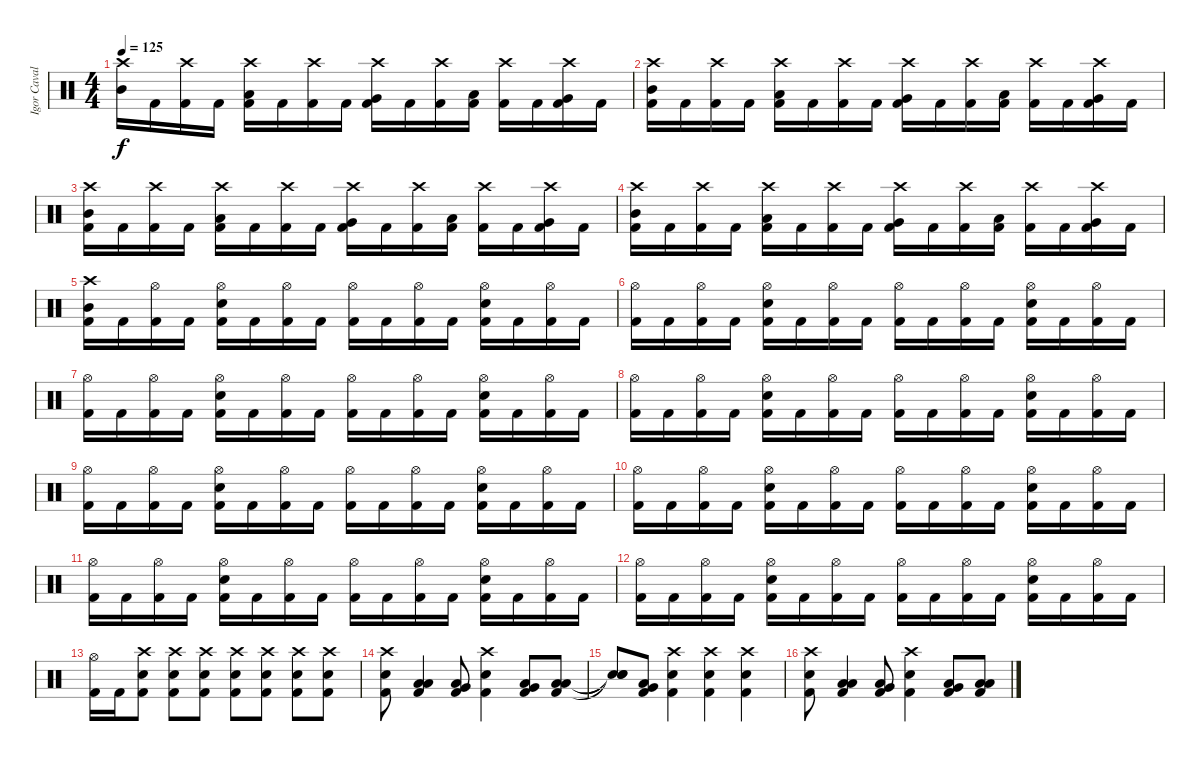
\track ("Igor Cavalera" "Igor Caval") {instrument percussion}
\staff {score}
\articulation defaults
\ts (4 4)
\tempo 125
\clef neutral
\ks c
("Crash high (hit)" "Mid Tom (hit)").16{dy f} "Kick (hit) 2".16 ("Crash high (hit)" "Kick (hit) 2").16 "Kick (hit) 2".16 ("Crash high (hit)" "Low Tom (hit)" "Kick (hit) 2").16 "Kick (hit) 2".16 ("Crash high (hit)" "Kick (hit) 2").16 "Kick (hit) 2".16 ("Crash high (hit)" "Very Low Tom (hit)" "Kick (hit) 2").16 "Kick (hit) 2".16 ("Crash high (hit)" "Kick (hit) 2").16 ("Low Floor Tom (hit)" "Kick (hit) 2").16 ("Crash high (hit)" "Kick (hit) 2").16 "Kick (hit) 2".16 ("Crash high (hit)" "Very Low Tom (hit)" "Kick (hit) 2").16 "Kick (hit) 2".16 |
("Crash high (hit)" "Mid Tom (hit)" "Kick (hit) 2").16 "Kick (hit) 2".16 ("Crash high (hit)" "Kick (hit) 2").16 "Kick (hit) 2".16 ("Crash high (hit)" "Low Tom (hit)" "Kick (hit) 2").16 "Kick (hit) 2".16 ("Crash high (hit)" "Kick (hit) 2").16 "Kick (hit) 2".16 ("Crash high (hit)" "Very Low Tom (hit)" "Kick (hit) 2").16 "Kick (hit) 2".16 ("Crash high (hit)" "Kick (hit) 2").16 ("Low Floor Tom (hit)" "Kick (hit) 2").16 ("Crash high (hit)" "Kick (hit) 2").16 "Kick (hit) 2".16 ("Crash high (hit)" "Very Low Tom (hit)" "Kick (hit) 2").16 "Kick (hit) 2".16 |
("Crash high (hit)" "Mid Tom (hit)" "Kick (hit) 2").16 "Kick (hit) 2".16 ("Crash high (hit)" "Kick (hit) 2").16 "Kick (hit) 2".16 ("Crash high (hit)" "Low Tom (hit)" "Kick (hit) 2").16 "Kick (hit) 2".16 ("Crash high (hit)" "Kick (hit) 2").16 "Kick (hit) 2".16 ("Crash high (hit)" "Very Low Tom (hit)" "Kick (hit) 2").16 "Kick (hit) 2".16 ("Crash high (hit)" "Kick (hit) 2").16 ("Low Floor Tom (hit)" "Kick (hit) 2").16 ("Crash high (hit)" "Kick (hit) 2").16 "Kick (hit) 2".16 ("Crash high (hit)" "Very Low Tom (hit)" "Kick (hit) 2").16 "Kick (hit) 2".16 |
("Crash high (hit)" "Mid Tom (hit)" "Kick (hit) 2").16 "Kick (hit) 2".16 ("Crash high (hit)" "Kick (hit) 2").16 "Kick (hit) 2".16 ("Crash high (hit)" "Low Tom (hit)" "Kick (hit) 2").16 "Kick (hit) 2".16 ("Crash high (hit)" "Kick (hit) 2").16 "Kick (hit) 2".16 ("Crash high (hit)" "Very Low Tom (hit)" "Kick (hit) 2").16 "Kick (hit) 2".16 ("Crash high (hit)" "Kick (hit) 2").16 ("Low Floor Tom (hit)" "Kick (hit) 2").16 ("Crash high (hit)" "Kick (hit) 2").16 "Kick (hit) 2".16 ("Crash high (hit)" "Very Low Tom (hit)" "Kick (hit) 2").16 "Kick (hit) 2".16 |
("Crash high (hit)" "Mid Tom (hit)" "Kick (hit) 2").16 "Kick (hit) 2".16 ("Hi-Hat (open)" "Kick (hit) 2").16 "Kick (hit) 2".16 ("Hi-Hat (open)" "Electric Snare (hit)" "Kick (hit) 2").16 "Kick (hit) 2".16 ("Hi-Hat (open)" "Kick (hit) 2").16 "Kick (hit) 2".16 ("Hi-Hat (open)" "Kick (hit) 2").16 "Kick (hit) 2".16 ("Hi-Hat (open)" "Kick (hit) 2").16 "Kick (hit) 2".16 ("Hi-Hat (open)" "Electric Snare (hit)" "Kick (hit) 2").16 "Kick (hit) 2".16 ("Hi-Hat (open)" "Kick (hit) 2").16 "Kick (hit) 2".16 |
("Hi-Hat (open)" "Kick (hit) 2").16 "Kick (hit) 2".16 ("Hi-Hat (open)" "Kick (hit) 2").16 "Kick (hit) 2".16 ("Hi-Hat (open)" "Electric Snare (hit)" "Kick (hit) 2").16 "Kick (hit) 2".16 ("Hi-Hat (open)" "Kick (hit) 2").16 "Kick (hit) 2".16 ("Hi-Hat (open)" "Kick (hit) 2").16 "Kick (hit) 2".16 ("Hi-Hat (open)" "Kick (hit) 2").16 "Kick (hit) 2".16 ("Hi-Hat (open)" "Electric Snare (hit)" "Kick (hit) 2").16 "Kick (hit) 2".16 ("Hi-Hat (open)" "Kick (hit) 2").16 "Kick (hit) 2".16 |
("Hi-Hat (open)" "Kick (hit) 2").16 "Kick (hit) 2".16 ("Hi-Hat (open)" "Kick (hit) 2").16 "Kick (hit) 2".16 ("Hi-Hat (open)" "Electric Snare (hit)" "Kick (hit) 2").16 "Kick (hit) 2".16 ("Hi-Hat (open)" "Kick (hit) 2").16 "Kick (hit) 2".16 ("Hi-Hat (open)" "Kick (hit) 2").16 "Kick (hit) 2".16 ("Hi-Hat (open)" "Kick (hit) 2").16 "Kick (hit) 2".16 ("Hi-Hat (open)" "Electric Snare (hit)" "Kick (hit) 2").16 "Kick (hit) 2".16 ("Hi-Hat (open)" "Kick (hit) 2").16 "Kick (hit) 2".16 |
("Hi-Hat (open)" "Kick (hit) 2").16 "Kick (hit) 2".16 ("Hi-Hat (open)" "Kick (hit) 2").16 "Kick (hit) 2".16 ("Hi-Hat (open)" "Electric Snare (hit)" "Kick (hit) 2").16 "Kick (hit) 2".16 ("Hi-Hat (open)" "Kick (hit) 2").16 "Kick (hit) 2".16 ("Hi-Hat (open)" "Kick (hit) 2").16 "Kick (hit) 2".16 ("Hi-Hat (open)" "Kick (hit) 2").16 "Kick (hit) 2".16 ("Hi-Hat (open)" "Electric Snare (hit)" "Kick (hit) 2").16 "Kick (hit) 2".16 ("Hi-Hat (open)" "Kick (hit) 2").16 "Kick (hit) 2".16 |
("Hi-Hat (open)" "Kick (hit) 2").16 "Kick (hit) 2".16 ("Hi-Hat (open)" "Kick (hit) 2").16 "Kick (hit) 2".16 ("Hi-Hat (open)" "Electric Snare (hit)" "Kick (hit) 2").16 "Kick (hit) 2".16 ("Hi-Hat (open)" "Kick (hit) 2").16 "Kick (hit) 2".16 ("Hi-Hat (open)" "Kick (hit) 2").16 "Kick (hit) 2".16 ("Hi-Hat (open)" "Kick (hit) 2").16 "Kick (hit) 2".16 ("Hi-Hat (open)" "Electric Snare (hit)" "Kick (hit) 2").16 "Kick (hit) 2".16 ("Hi-Hat (open)" "Kick (hit) 2").16 "Kick (hit) 2".16 |
("Hi-Hat (open)" "Kick (hit) 2").16 "Kick (hit) 2".16 ("Hi-Hat (open)" "Kick (hit) 2").16 "Kick (hit) 2".16 ("Hi-Hat (open)" "Electric Snare (hit)" "Kick (hit) 2").16 "Kick (hit) 2".16 ("Hi-Hat (open)" "Kick (hit) 2").16 "Kick (hit) 2".16 ("Hi-Hat (open)" "Kick (hit) 2").16 "Kick (hit) 2".16 ("Hi-Hat (open)" "Kick (hit) 2").16 "Kick (hit) 2".16 ("Hi-Hat (open)" "Electric Snare (hit)" "Kick (hit) 2").16 "Kick (hit) 2".16 ("Hi-Hat (open)" "Kick (hit) 2").16 "Kick (hit) 2".16 |
("Hi-Hat (open)" "Kick (hit) 2").16 "Kick (hit) 2".16 ("Hi-Hat (open)" "Kick (hit) 2").16 "Kick (hit) 2".16 ("Hi-Hat (open)" "Electric Snare (hit)" "Kick (hit) 2").16 "Kick (hit) 2".16 ("Hi-Hat (open)" "Kick (hit) 2").16 "Kick (hit) 2".16 ("Hi-Hat (open)" "Kick (hit) 2").16 "Kick (hit) 2".16 ("Hi-Hat (open)" "Kick (hit) 2").16 "Kick (hit) 2".16 ("Hi-Hat (open)" "Electric Snare (hit)" "Kick (hit) 2").16 "Kick (hit) 2".16 ("Hi-Hat (open)" "Kick (hit) 2").16 "Kick (hit) 2".16 |
("Hi-Hat (open)" "Kick (hit) 2").16 "Kick (hit) 2".16 ("Hi-Hat (open)" "Kick (hit) 2").16 "Kick (hit) 2".16 ("Hi-Hat (open)" "Electric Snare (hit)" "Kick (hit) 2").16 "Kick (hit) 2".16 ("Hi-Hat (open)" "Kick (hit) 2").16 "Kick (hit) 2".16 ("Hi-Hat (open)" "Kick (hit) 2").16 "Kick (hit) 2".16 ("Hi-Hat (open)" "Kick (hit) 2").16 "Kick (hit) 2".16 ("Hi-Hat (open)" "Electric Snare (hit)" "Kick (hit) 2").16 "Kick (hit) 2".16 ("Hi-Hat (open)" "Kick (hit) 2").16 "Kick (hit) 2".16 |
("Hi-Hat (open)" "Kick (hit) 2").16 "Kick (hit) 2".16 ("Crash high (hit)" "Electric Snare (hit)" "Kick (hit) 2").8 ("Crash high (hit)" "Electric Snare (hit)" "Kick (hit) 2").8 ("Crash high (hit)" "Electric Snare (hit)" "Kick (hit) 2").8 ("Crash high (hit)" "Electric Snare (hit)" "Kick (hit) 2").8 ("Crash high (hit)" "Electric Snare (hit)" "Kick (hit) 2").8 ("Crash high (hit)" "Electric Snare (hit)" "Kick (hit) 2").8 ("Crash high (hit)" "Electric Snare (hit)" "Kick (hit) 2").8 |
("Crash high (hit)" "Electric Snare (hit)" "Kick (hit) 2").8 ("Low Tom (hit)" "Low Floor Tom (hit)" "Kick (hit) 2").4 ("Very Low Tom (hit)" "Low Floor Tom (hit)" "Kick (hit) 2").8 ("Crash high (hit)" "Electric Snare (hit)" "Kick (hit) 2").4 ("Very Low Tom (hit)" "Low Floor Tom (hit)" "Kick (hit) 2").8 ("Low Tom (hit)" "Low Floor Tom (hit)" "Kick (hit) 2").8 |
("Snare (hit)"{t} "Snare (hit)"{t} "Snare (hit)"{t}).8 ("Low Tom (hit)" "Very Low Tom (hit)" "Kick (hit) 2").8 ("Crash high (hit)" "Electric Snare (hit)" "Kick (hit) 2").4 ("Crash high (hit)" "Electric Snare (hit)" "Kick (hit) 2").4 ("Crash high (hit)" "Electric Snare (hit)" "Kick (hit) 2").4 |
("Crash high (hit)" "Electric Snare (hit)" "Kick (hit) 2").8 ("Low Tom (hit)" "Low Floor Tom (hit)" "Kick (hit) 2").4 ("Very Low Tom (hit)" "Low Floor Tom (hit)" "Kick (hit) 2").8 ("Crash high (hit)" "Electric Snare (hit)" "Kick (hit) 2").4 ("Very Low Tom (hit)" "Low Floor Tom (hit)" "Kick (hit) 2").8 ("Low Tom (hit)" "Low Floor Tom (hit)" "Kick (hit) 2").8
